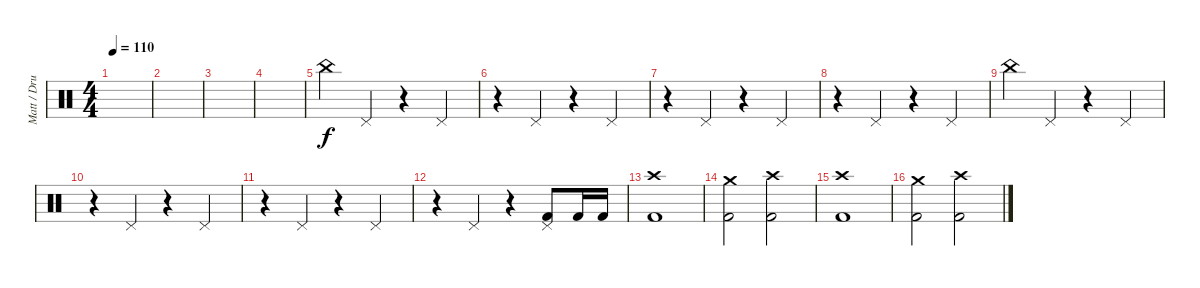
\track ("Matt / Drums" "Matt / Dru") {instrument percussion}
\staff {score}
\articulation defaults
\ts (4 4)
\tempo 110
\clef neutral
\ks c
|
|
|
|
"China (hit)".4 "Pedal Hi-Hat (hit)".4 r.4 "Pedal Hi-Hat (hit)".4 |
r.4 "Pedal Hi-Hat (hit)".4 r.4 "Pedal Hi-Hat (hit)".4 |
r.4 "Pedal Hi-Hat (hit)".4 r.4 "Pedal Hi-Hat (hit)".4 |
r.4 "Pedal Hi-Hat (hit)".4 r.4 "Pedal Hi-Hat (hit)".4 |
"China (hit)".4 "Pedal Hi-Hat (hit)".4 r.4 "Pedal Hi-Hat (hit)".4 |
r.4 "Pedal Hi-Hat (hit)".4 r.4 "Pedal Hi-Hat (hit)".4 |
r.4 "Pedal Hi-Hat (hit)".4 r.4 "Pedal Hi-Hat (hit)".4 |
r.4 "Pedal Hi-Hat (hit)".4 r.4 ("Pedal Hi-Hat (hit)" "Kick (hit) 2").8 "Kick (hit) 2".16 "Kick (hit) 2".16 |
("Crash high (hit)" "Kick (hit) 2").1 |
("Crash medium (hit)" "Kick (hit) 2").2 ("Crash high (hit)" "Kick (hit) 2").2 |
("Crash high (hit)" "Kick (hit) 2").1 |
("Crash medium (hit)" "Kick (hit) 2").2 ("Crash high (hit)" "Kick (hit) 2").2
